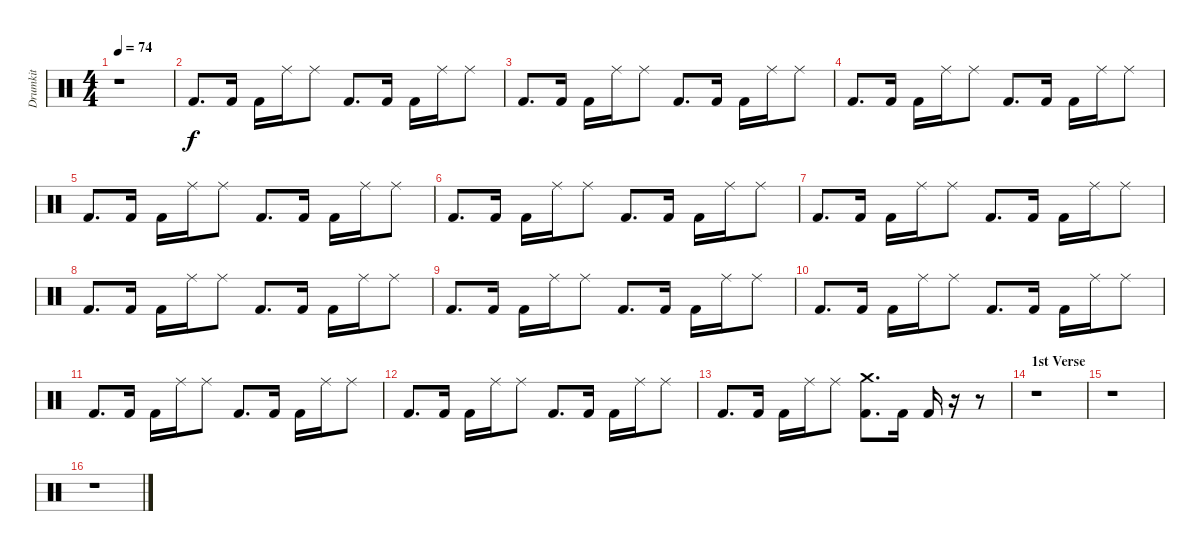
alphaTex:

\track ("Drumkit" "Drumkit") {instrument percussion}
\staff {score}
\articulation defaults
\ts (4 4)
\tempo 74
\clef neutral
\ks c
r.1{dy f} |
"Kick (hit) 2".8{d} "Kick (hit) 2".16 "Kick (hit) 2".16 "Ride (middle)".16 "Ride (middle)".8 "Kick (hit) 2".8{d} "Kick (hit) 2".16 "Kick (hit) 2".16 "Ride (middle)".16 "Ride (middle)".8 |
"Kick (hit) 2".8{d} "Kick (hit) 2".16 "Kick (hit) 2".16 "Ride (middle)".16 "Ride (middle)".8 "Kick (hit) 2".8{d} "Kick (hit) 2".16 "Kick (hit) 2".16 "Ride (middle)".16 "Ride (middle)".8 |
"Kick (hit) 2".8{d} "Kick (hit) 2".16 "Kick (hit) 2".16 "Ride (middle)".16 "Ride (middle)".8 "Kick (hit) 2".8{d} "Kick (hit) 2".16 "Kick (hit) 2".16 "Ride (middle)".16 "Ride (middle)".8 |
"Kick (hit) 2".8{d} "Kick (hit) 2".16 "Kick (hit) 2".16 "Ride (middle)".16 "Ride (middle)".8 "Kick (hit) 2".8{d} "Kick (hit) 2".16 "Kick (hit) 2".16 "Ride (middle)".16 "Ride (middle)".8 |
"Kick (hit) 2".8{d} "Kick (hit) 2".16 "Kick (hit) 2".16 "Ride (middle)".16 "Ride (middle)".8 "Kick (hit) 2".8{d} "Kick (hit) 2".16 "Kick (hit) 2".16 "Ride (middle)".16 "Ride (middle)".8 |
"Kick (hit) 2".8{d} "Kick (hit) 2".16 "Kick (hit) 2".16 "Ride (middle)".16 "Ride (middle)".8 "Kick (hit) 2".8{d} "Kick (hit) 2".16 "Kick (hit) 2".16 "Ride (middle)".16 "Ride (middle)".8 |
"Kick (hit) 2".8{d} "Kick (hit) 2".16 "Kick (hit) 2".16 "Ride (middle)".16 "Ride (middle)".8 "Kick (hit) 2".8{d} "Kick (hit) 2".16 "Kick (hit) 2".16 "Ride (middle)".16 "Ride (middle)".8 |
"Kick (hit) 2".8{d} "Kick (hit) 2".16 "Kick (hit) 2".16 "Ride (middle)".16 "Ride (middle)".8 "Kick (hit) 2".8{d} "Kick (hit) 2".16 "Kick (hit) 2".16 "Ride (middle)".16 "Ride (middle)".8 |
"Kick (hit) 2".8{d} "Kick (hit) 2".16 "Kick (hit) 2".16 "Ride (middle)".16 "Ride (middle)".8 "Kick (hit) 2".8{d} "Kick (hit) 2".16 "Kick (hit) 2".16 "Ride (middle)".16 "Ride (middle)".8 |
"Kick (hit) 2".8{d} "Kick (hit) 2".16 "Kick (hit) 2".16 "Ride (middle)".16 "Ride (middle)".8 "Kick (hit) 2".8{d} "Kick (hit) 2".16 "Kick (hit) 2".16 "Ride (middle)".16 "Ride (middle)".8 |
"Kick (hit) 2".8{d} "Kick (hit) 2".16 "Kick (hit) 2".16 "Ride (middle)".16 "Ride (middle)".8 "Kick (hit) 2".8{d} "Kick (hit) 2".16 "Kick (hit) 2".16 "Ride (middle)".16 "Ride (middle)".8 |
"Kick (hit) 2".8{d} "Kick (hit) 2".16 "Kick (hit) 2".16 "Ride (middle)".16 "Ride (middle)".8 ("Crash medium (hit)" "Kick (hit) 2").8{d} "Kick (hit) 2".16 "Kick (hit) 2".16 r.16 r.8 |
\section ("" "1st Verse")
r.1 |
r.1 |
r.1
